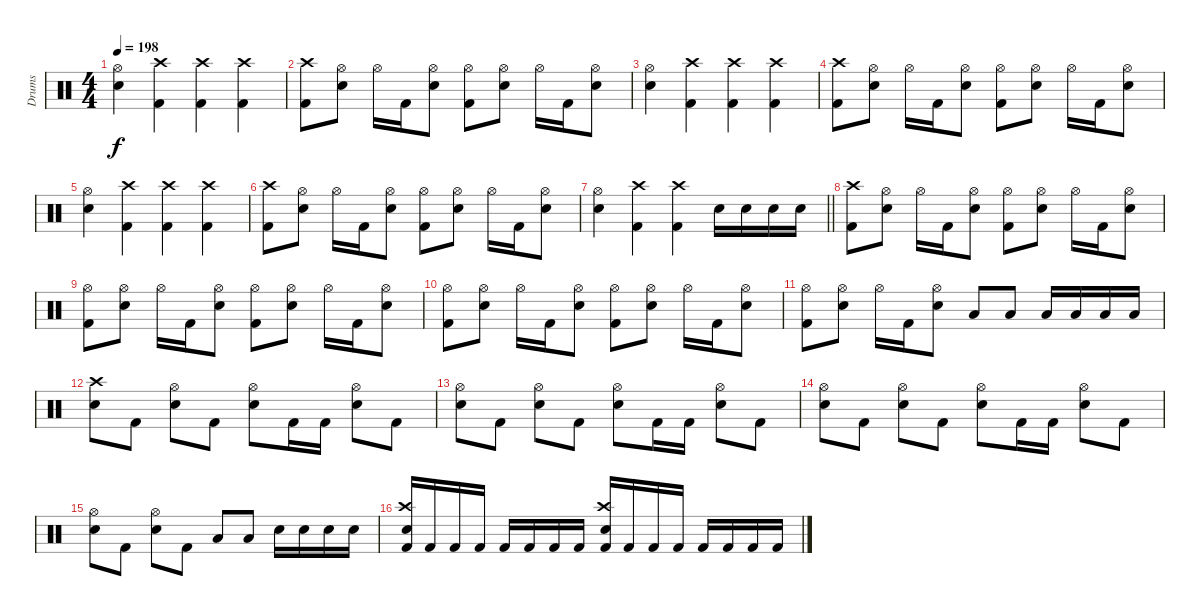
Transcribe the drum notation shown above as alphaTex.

\track ("Drums" "Drums") {instrument percussion}
\staff {score}
\articulation defaults
\ts (4 4)
\tempo 198
\clef neutral
\ks c
("Hi-Hat (open)" "Snare (hit) 2").4{dy f} ("Crash high (hit)" "Kick (hit) 2").4 ("Crash high (hit)" "Kick (hit) 2").4 ("Crash high (hit)" "Kick (hit) 2").4 |
("Crash high (hit)" "Kick (hit) 2").8 ("Hi-Hat (open)" "Snare (hit) 2").8 "Hi-Hat (open)".16 "Kick (hit) 2".16 ("Hi-Hat (open)" "Snare (hit) 2").8 ("Hi-Hat (open)" "Kick (hit) 2").8 ("Hi-Hat (open)" "Snare (hit) 2").8 "Hi-Hat (open)".16 "Kick (hit) 2".16 ("Hi-Hat (open)" "Snare (hit) 2").8 |
("Hi-Hat (open)" "Snare (hit) 2").4 ("Crash high (hit)" "Kick (hit) 2").4 ("Crash high (hit)" "Kick (hit) 2").4 ("Crash high (hit)" "Kick (hit) 2").4 |
("Crash high (hit)" "Kick (hit) 2").8 ("Hi-Hat (open)" "Snare (hit) 2").8 "Hi-Hat (open)".16 "Kick (hit) 2".16 ("Hi-Hat (open)" "Snare (hit) 2").8 ("Hi-Hat (open)" "Kick (hit) 2").8 ("Hi-Hat (open)" "Snare (hit) 2").8 "Hi-Hat (open)".16 "Kick (hit) 2".16 ("Hi-Hat (open)" "Snare (hit) 2").8 |
("Hi-Hat (open)" "Snare (hit) 2").4 ("Crash high (hit)" "Kick (hit) 2").4 ("Crash high (hit)" "Kick (hit) 2").4 ("Crash high (hit)" "Kick (hit) 2").4 |
("Crash high (hit)" "Kick (hit) 2").8 ("Hi-Hat (open)" "Snare (hit) 2").8 "Hi-Hat (open)".16 "Kick (hit) 2".16 ("Hi-Hat (open)" "Snare (hit) 2").8 ("Hi-Hat (open)" "Kick (hit) 2").8 ("Hi-Hat (open)" "Snare (hit) 2").8 "Hi-Hat (open)".16 "Kick (hit) 2".16 ("Hi-Hat (open)" "Snare (hit) 2").8 |
\barLineRight lightlight
("Hi-Hat (open)" "Snare (hit) 2").4 ("Crash high (hit)" "Kick (hit) 2").4 ("Crash high (hit)" "Kick (hit) 2").4 "Snare (hit) 2".16 "Snare (hit) 2".16 "Snare (hit) 2".16 "Snare (hit) 2".16 |
("Crash high (hit)" "Kick (hit) 2").8 ("Hi-Hat (open)" "Snare (hit) 2").8 "Hi-Hat (open)".16 "Kick (hit) 2".16 ("Hi-Hat (open)" "Snare (hit) 2").8 ("Hi-Hat (open)" "Kick (hit) 2").8 ("Hi-Hat (open)" "Snare (hit) 2").8 "Hi-Hat (open)".16 "Kick (hit) 2".16 ("Hi-Hat (open)" "Snare (hit) 2").8 |
("Hi-Hat (open)" "Kick (hit) 2").8 ("Hi-Hat (open)" "Snare (hit) 2").8 "Hi-Hat (open)".16 "Kick (hit) 2".16 ("Hi-Hat (open)" "Snare (hit) 2").8 ("Hi-Hat (open)" "Kick (hit) 2").8 ("Hi-Hat (open)" "Snare (hit) 2").8 "Hi-Hat (open)".16 "Kick (hit) 2".16 ("Hi-Hat (open)" "Snare (hit) 2").8 |
("Hi-Hat (open)" "Kick (hit) 2").8 ("Hi-Hat (open)" "Snare (hit) 2").8 "Hi-Hat (open)".16 "Kick (hit) 2".16 ("Hi-Hat (open)" "Snare (hit) 2").8 ("Hi-Hat (open)" "Kick (hit) 2").8 ("Hi-Hat (open)" "Snare (hit) 2").8 "Hi-Hat (open)".16 "Kick (hit) 2".16 ("Hi-Hat (open)" "Snare (hit) 2").8 |
("Hi-Hat (open)" "Kick (hit) 2").8 ("Hi-Hat (open)" "Snare (hit) 2").8 "Hi-Hat (open)".16 "Kick (hit) 2".16 ("Hi-Hat (open)" "Snare (hit) 2").8 "Low Floor Tom (hit)".8 "Low Floor Tom (hit)".8 "Low Floor Tom (hit)".16 "Low Floor Tom (hit)".16 "Low Floor Tom (hit)".16 "Low Floor Tom (hit)".16 |
("Crash high (hit)" "Snare (hit) 2").8 "Kick (hit) 2".8 ("Hi-Hat (open)" "Snare (hit) 2").8 "Kick (hit) 2".8 ("Hi-Hat (open)" "Snare (hit) 2").8 "Kick (hit) 2".16 "Kick (hit) 2".16 ("Hi-Hat (open)" "Snare (hit) 2").8 "Kick (hit) 2".8 |
("Hi-Hat (open)" "Snare (hit) 2").8 "Kick (hit) 2".8 ("Hi-Hat (open)" "Snare (hit) 2").8 "Kick (hit) 2".8 ("Hi-Hat (open)" "Snare (hit) 2").8 "Kick (hit) 2".16 "Kick (hit) 2".16 ("Hi-Hat (open)" "Snare (hit) 2").8 "Kick (hit) 2".8 |
("Hi-Hat (open)" "Snare (hit) 2").8 "Kick (hit) 2".8 ("Hi-Hat (open)" "Snare (hit) 2").8 "Kick (hit) 2".8 ("Hi-Hat (open)" "Snare (hit) 2").8 "Kick (hit) 2".16 "Kick (hit) 2".16 ("Hi-Hat (open)" "Snare (hit) 2").8 "Kick (hit) 2".8 |
("Hi-Hat (open)" "Snare (hit) 2").8 "Kick (hit) 2".8 ("Hi-Hat (open)" "Snare (hit) 2").8 "Kick (hit) 2".8 "Low Floor Tom (hit)".8 "Low Floor Tom (hit)".8 "Snare (hit) 2".16 "Snare (hit) 2".16 "Snare (hit) 2".16 "Snare (hit) 2".16 |
("Crash high (hit)" "Snare (hit) 2" "Kick (hit) 2").16 "Kick (hit) 2".16 "Kick (hit) 2".16 "Kick (hit) 2".16 "Kick (hit) 2".16 "Kick (hit) 2".16 "Kick (hit) 2".16 "Kick (hit) 2".16 ("Crash high (hit)" "Snare (hit) 2" "Kick (hit) 2").16 "Kick (hit) 2".16 "Kick (hit) 2".16 "Kick (hit) 2".16 "Kick (hit) 2".16 "Kick (hit) 2".16 "Kick (hit) 2".16 "Kick (hit) 2".16
